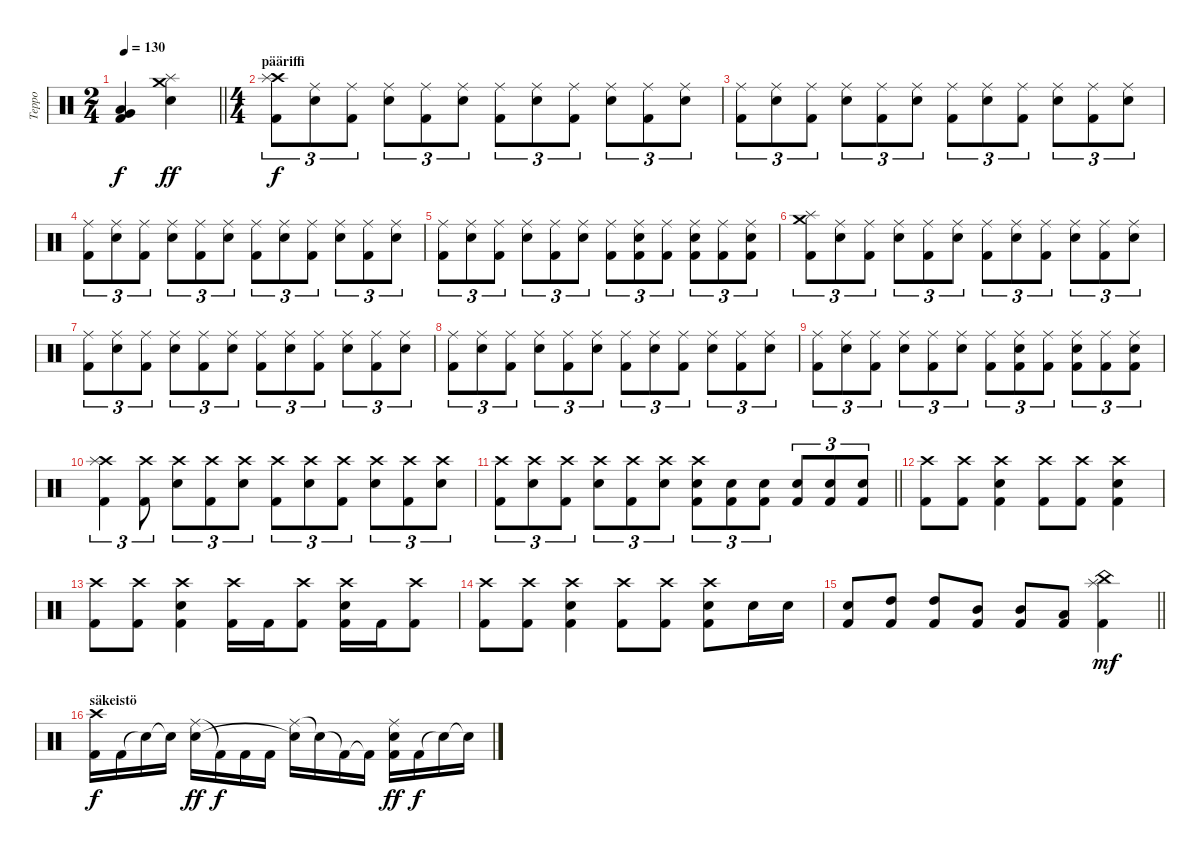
\track ("Teppo" "Teppo") {instrument percussion}
\staff {score}
\articulation defaults
\ts (2 4)
\tempo 130
\clef neutral
\barLineRight lightlight
\ks c
("Very Low Tom (hit)" "Low Floor Tom (hit)" "Kick (hit) 2").4{dy f} ("Crash medium (hit)" "Splash (hit)" "Electric Snare (hit)").4{dy ff} |
\ts (4 4)
\section ("" "pääriffi")
("Crash high (hit)" "Splash (hit)" "Kick (hit) 2").8{tu (3 2) dy f} ("Ride (middle)" "Electric Snare (hit)").8{tu (3 2)} ("Ride (middle)" "Kick (hit) 2").8{tu (3 2)} ("Ride (middle)" "Electric Snare (hit)").8{tu (3 2)} ("Ride (middle)" "Kick (hit) 2").8{tu (3 2)} ("Ride (middle)" "Electric Snare (hit)").8{tu (3 2)} ("Ride (middle)" "Kick (hit) 2").8{tu (3 2)} ("Ride (middle)" "Electric Snare (hit)").8{tu (3 2)} ("Ride (middle)" "Kick (hit) 2").8{tu (3 2)} ("Ride (middle)" "Electric Snare (hit)").8{tu (3 2)} ("Ride (middle)" "Kick (hit) 2").8{tu (3 2)} ("Ride (middle)" "Electric Snare (hit)").8{tu (3 2)} |
("Ride (middle)" "Kick (hit) 2").8{tu (3 2)} ("Ride (middle)" "Electric Snare (hit)").8{tu (3 2)} ("Ride (middle)" "Kick (hit) 2").8{tu (3 2)} ("Ride (middle)" "Electric Snare (hit)").8{tu (3 2)} ("Ride (middle)" "Kick (hit) 2").8{tu (3 2)} ("Ride (middle)" "Electric Snare (hit)").8{tu (3 2)} ("Ride (middle)" "Kick (hit) 2").8{tu (3 2)} ("Ride (middle)" "Electric Snare (hit)").8{tu (3 2)} ("Ride (middle)" "Kick (hit) 2").8{tu (3 2)} ("Ride (middle)" "Electric Snare (hit)").8{tu (3 2)} ("Ride (middle)" "Kick (hit) 2").8{tu (3 2)} ("Ride (middle)" "Electric Snare (hit)").8{tu (3 2)} |
("Ride (middle)" "Kick (hit) 2").8{tu (3 2)} ("Ride (middle)" "Electric Snare (hit)").8{tu (3 2)} ("Ride (middle)" "Kick (hit) 2").8{tu (3 2)} ("Ride (middle)" "Electric Snare (hit)").8{tu (3 2)} ("Ride (middle)" "Kick (hit) 2").8{tu (3 2)} ("Ride (middle)" "Electric Snare (hit)").8{tu (3 2)} ("Ride (middle)" "Kick (hit) 2").8{tu (3 2)} ("Ride (middle)" "Electric Snare (hit)").8{tu (3 2)} ("Ride (middle)" "Kick (hit) 2").8{tu (3 2)} ("Ride (middle)" "Electric Snare (hit)").8{tu (3 2)} ("Ride (middle)" "Kick (hit) 2").8{tu (3 2)} ("Ride (middle)" "Electric Snare (hit)").8{tu (3 2)} |
("Ride (middle)" "Kick (hit) 2").8{tu (3 2)} ("Ride (middle)" "Electric Snare (hit)").8{tu (3 2)} ("Ride (middle)" "Kick (hit) 2").8{tu (3 2)} ("Ride (middle)" "Electric Snare (hit)").8{tu (3 2)} ("Ride (middle)" "Kick (hit) 2").8{tu (3 2)} ("Ride (middle)" "Electric Snare (hit)").8{tu (3 2)} ("Ride (middle)" "Kick (hit) 2").8{tu (3 2)} ("Ride (middle)" "Electric Snare (hit)" "Kick (hit) 2").8{tu (3 2)} ("Ride (middle)" "Kick (hit) 2").8{tu (3 2)} ("Ride (middle)" "Electric Snare (hit)" "Kick (hit) 2").8{tu (3 2)} ("Ride (middle)" "Kick (hit) 2").8{tu (3 2)} ("Ride (middle)" "Electric Snare (hit)" "Kick (hit) 2").8{tu (3 2)} |
("Crash medium (hit)" "Splash (hit)" "Kick (hit) 2").8{tu (3 2)} ("Ride (middle)" "Electric Snare (hit)").8{tu (3 2)} ("Ride (middle)" "Kick (hit) 2").8{tu (3 2)} ("Ride (middle)" "Electric Snare (hit)").8{tu (3 2)} ("Ride (middle)" "Kick (hit) 2").8{tu (3 2)} ("Ride (middle)" "Electric Snare (hit)").8{tu (3 2)} ("Ride (middle)" "Kick (hit) 2").8{tu (3 2)} ("Ride (middle)" "Electric Snare (hit)").8{tu (3 2)} ("Ride (middle)" "Kick (hit) 2").8{tu (3 2)} ("Ride (middle)" "Electric Snare (hit)").8{tu (3 2)} ("Ride (middle)" "Kick (hit) 2").8{tu (3 2)} ("Ride (middle)" "Electric Snare (hit)").8{tu (3 2)} |
("Ride (middle)" "Kick (hit) 2").8{tu (3 2)} ("Ride (middle)" "Electric Snare (hit)").8{tu (3 2)} ("Ride (middle)" "Kick (hit) 2").8{tu (3 2)} ("Ride (middle)" "Electric Snare (hit)").8{tu (3 2)} ("Ride (middle)" "Kick (hit) 2").8{tu (3 2)} ("Ride (middle)" "Electric Snare (hit)").8{tu (3 2)} ("Ride (middle)" "Kick (hit) 2").8{tu (3 2)} ("Ride (middle)" "Electric Snare (hit)").8{tu (3 2)} ("Ride (middle)" "Kick (hit) 2").8{tu (3 2)} ("Ride (middle)" "Electric Snare (hit)").8{tu (3 2)} ("Ride (middle)" "Kick (hit) 2").8{tu (3 2)} ("Ride (middle)" "Electric Snare (hit)").8{tu (3 2)} |
("Ride (middle)" "Kick (hit) 2").8{tu (3 2)} ("Ride (middle)" "Electric Snare (hit)").8{tu (3 2)} ("Ride (middle)" "Kick (hit) 2").8{tu (3 2)} ("Ride (middle)" "Electric Snare (hit)").8{tu (3 2)} ("Ride (middle)" "Kick (hit) 2").8{tu (3 2)} ("Ride (middle)" "Electric Snare (hit)").8{tu (3 2)} ("Ride (middle)" "Kick (hit) 2").8{tu (3 2)} ("Ride (middle)" "Electric Snare (hit)").8{tu (3 2)} ("Ride (middle)" "Kick (hit) 2").8{tu (3 2)} ("Ride (middle)" "Electric Snare (hit)").8{tu (3 2)} ("Ride (middle)" "Kick (hit) 2").8{tu (3 2)} ("Ride (middle)" "Electric Snare (hit)").8{tu (3 2)} |
("Ride (middle)" "Kick (hit) 2").8{tu (3 2)} ("Ride (middle)" "Electric Snare (hit)").8{tu (3 2)} ("Ride (middle)" "Kick (hit) 2").8{tu (3 2)} ("Ride (middle)" "Electric Snare (hit)").8{tu (3 2)} ("Ride (middle)" "Kick (hit) 2").8{tu (3 2)} ("Ride (middle)" "Electric Snare (hit)").8{tu (3 2)} ("Ride (middle)" "Kick (hit) 2").8{tu (3 2)} ("Ride (middle)" "Electric Snare (hit)" "Kick (hit) 2").8{tu (3 2)} ("Ride (middle)" "Kick (hit) 2").8{tu (3 2)} ("Ride (middle)" "Electric Snare (hit)" "Kick (hit) 2").8{tu (3 2)} ("Ride (middle)" "Kick (hit) 2").8{tu (3 2)} ("Ride (middle)" "Electric Snare (hit)" "Kick (hit) 2").8{tu (3 2)} |
("Crash high (hit)" "Splash (hit)" "Kick (hit) 2").4{tu (3 2)} ("Crash high (hit)" "Kick (hit) 2").8{tu (3 2)} ("Crash high (hit)" "Electric Snare (hit)").8{tu (3 2)} ("Crash high (hit)" "Kick (hit) 2").8{tu (3 2)} ("Crash high (hit)" "Electric Snare (hit)").8{tu (3 2)} ("Crash high (hit)" "Kick (hit) 2").8{tu (3 2)} ("Crash high (hit)" "Electric Snare (hit)").8{tu (3 2)} ("Crash high (hit)" "Kick (hit) 2").8{tu (3 2)} ("Crash high (hit)" "Electric Snare (hit)").8{tu (3 2)} ("Crash high (hit)" "Kick (hit) 2").8{tu (3 2)} ("Crash high (hit)" "Electric Snare (hit)").8{tu (3 2)} |
\barLineRight lightlight
("Crash high (hit)" "Kick (hit) 2").8{tu (3 2)} ("Crash high (hit)" "Electric Snare (hit)").8{tu (3 2)} ("Crash high (hit)" "Kick (hit) 2").8{tu (3 2)} ("Crash high (hit)" "Electric Snare (hit)").8{tu (3 2)} ("Crash high (hit)" "Kick (hit) 2").8{tu (3 2)} ("Crash high (hit)" "Electric Snare (hit)").8{tu (3 2)} ("Crash high (hit)" "Electric Snare (hit)" "Kick (hit) 2").8{tu (3 2)} ("Electric Snare (hit)" "Kick (hit) 2").8{tu (3 2)} ("Electric Snare (hit)" "Kick (hit) 2").8{tu (3 2)} ("Electric Snare (hit)" "Kick (hit) 2").8{tu (3 2)} ("Electric Snare (hit)" "Kick (hit) 2").8{tu (3 2)} ("Electric Snare (hit)" "Kick (hit) 2").8{tu (3 2)} |
\section ("" "")
("Crash high (hit)" "Kick (hit) 2").8 ("Crash high (hit)" "Kick (hit) 2").8 ("Crash high (hit)" "Electric Snare (hit)" "Kick (hit) 2").4 ("Crash high (hit)" "Kick (hit) 2").8 ("Crash high (hit)" "Kick (hit) 2").8 ("Crash high (hit)" "Electric Snare (hit)" "Kick (hit) 2").4 |
("Crash high (hit)" "Kick (hit) 2").8 ("Crash high (hit)" "Kick (hit) 2").8 ("Crash high (hit)" "Electric Snare (hit)" "Kick (hit) 2").4 ("Crash high (hit)" "Kick (hit) 2").16 "Kick (hit) 2".16 ("Crash high (hit)" "Kick (hit) 2").8 ("Crash high (hit)" "Electric Snare (hit)" "Kick (hit) 2").16 "Kick (hit) 2".16 ("Crash high (hit)" "Kick (hit) 2").8 |
("Crash high (hit)" "Kick (hit) 2").8 ("Crash high (hit)" "Kick (hit) 2").8 ("Crash high (hit)" "Electric Snare (hit)" "Kick (hit) 2").4 ("Crash high (hit)" "Kick (hit) 2").8 ("Crash high (hit)" "Kick (hit) 2").8 ("Crash high (hit)" "Electric Snare (hit)" "Kick (hit) 2").8 "Electric Snare (hit)".16 "Electric Snare (hit)".16 |
\barLineRight lightlight
("Electric Snare (hit)" "Kick (hit) 2").8 ("High Tom (hit)" "Kick (hit) 2").8 ("High Tom (hit)" "Kick (hit) 2").8 ("Mid Tom (hit)" "Kick (hit) 2").8 ("Mid Tom (hit)" "Kick (hit) 2").8 ("Low Tom (hit)" "Kick (hit) 2").8 ("China (hit)" "Splash (hit)" "Kick (hit) 2").4{dy mf} |
\section ("" "säkeistö")
("Crash high (hit)" "Kick (hit) 2").16{dy f} "Kick (hit) 2".16 "Snare (hit)"{t}.16 "Snare (hit)"{t}.16 ("Ride (middle)" "Electric Snare (hit)").16{dy ff} "Kick (hit) 2"{t}.16{dy f} "Kick (hit) 2".16 "Kick (hit) 2".16 ("Ride (middle)" "Snare (hit)"{t}).16 "Snare (hit)"{t}.16 "Kick (hit) 2"{t}.16 "Kick (hit) 2"{t}.16 ("Ride (middle)" "Electric Snare (hit)" "Kick (hit) 2").16{dy ff} "Kick (hit) 2".16{dy f} "Snare (hit)"{t}.16 "Snare (hit)"{t}.16
